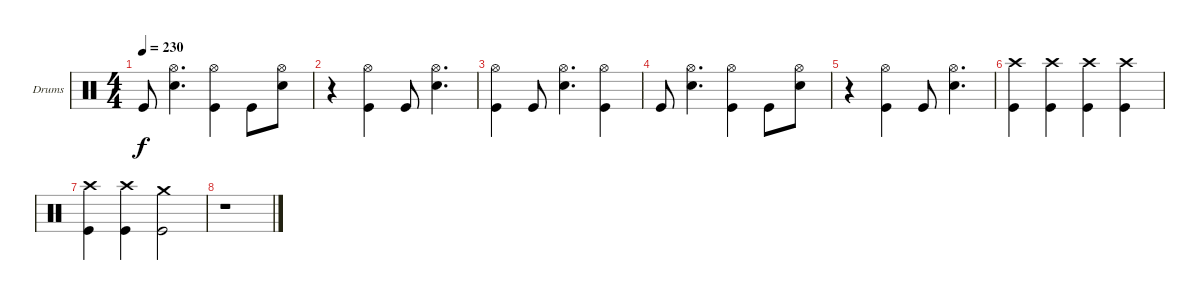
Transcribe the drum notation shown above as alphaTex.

\bracketExtendMode groupsimilarinstruments
\firstSystemTrackNameOrientation horizontal
\otherSystemsTrackNameOrientation horizontal
\track ("Drumkit" "Drums") {instrument percussion}
\staff {score}
\articulation defaults
\ts (4 4)
\tempo 230
\clef neutral
\ks c "Kick (hit)".8{dy f}
("Hi-Hat (open)" "Snare (hit) 2").4{d} ("Hi-Hat (open)" "Kick (hit)").4 "Kick (hit)".8 ("Hi-Hat (open)" "Snare (hit) 2").8 |
r.4 ("Hi-Hat (open)" "Kick (hit)").4 "Kick (hit)".8 ("Hi-Hat (open)" "Snare (hit) 2").4{d} |
("Hi-Hat (open)" "Kick (hit)").4 "Kick (hit)".8 ("Hi-Hat (open)" "Snare (hit) 2").4{d} ("Hi-Hat (open)" "Kick (hit)").4 |
"Kick (hit)".8 ("Hi-Hat (open)" "Snare (hit) 2").4{d} ("Hi-Hat (open)" "Kick (hit)").4 "Kick (hit)".8 ("Hi-Hat (open)" "Snare (hit) 2").8 |
r.4 ("Hi-Hat (open)" "Kick (hit)").4 "Kick (hit)".8 ("Hi-Hat (open)" "Snare (hit) 2").4{d} |
("Crash high (hit)" "Kick (hit)").4 ("Crash high (hit)" "Kick (hit)").4 ("Crash high (hit)" "Kick (hit)").4 ("Crash high (hit)" "Kick (hit)").4 |
("Crash high (hit)" "Kick (hit)").4 ("Crash high (hit)" "Kick (hit)").4 ("Crash medium (hit)" "Kick (hit)").2 |
r.1
